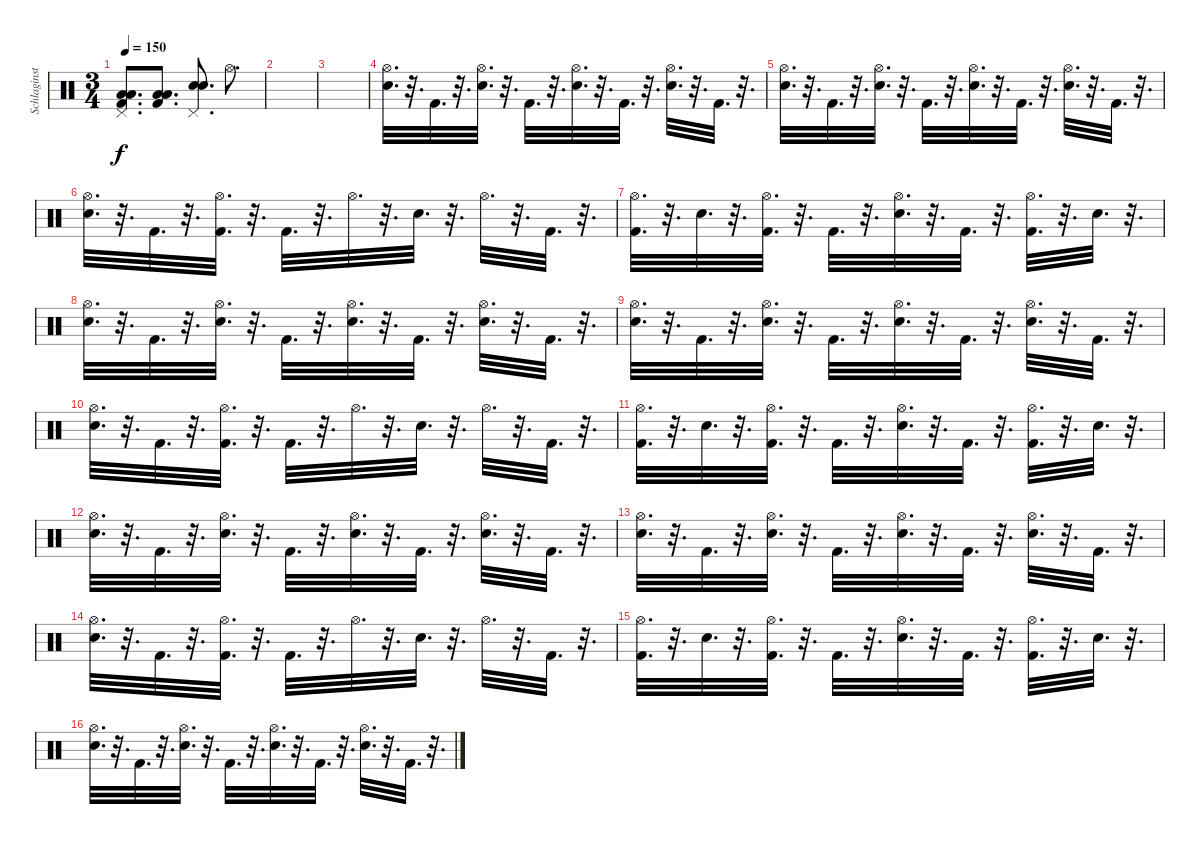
\track ("Schlaginstrumente - Auswahl" "Schlaginst") {instrument percussion}
\staff {score}
\articulation defaults
\ts (3 4)
\tempo 150
\clef neutral
\ks c
("Pedal Hi-Hat (hit)" "Low Tom (hit)" "Low Tom (hit)" "Kick (hit) 2").8{d dy f} ("Low Tom (hit)" "Low Tom (hit)" "Kick (hit) 2").8{d} ("Pedal Hi-Hat (hit)" "Snare (hit) 2" "Snare (hit) 2").8{d} "Hi-Hat (open)".8{d} |
|
|
("Hi-Hat (open)" "Snare (hit) 2").32{d} r.32{d} "Kick (hit) 2".32{d} r.32{d} ("Hi-Hat (open)" "Snare (hit) 2").32{d} r.32{d} "Kick (hit) 2".32{d} r.32{d} ("Hi-Hat (open)" "Snare (hit) 2").32{d} r.32{d} "Kick (hit) 2".32{d} r.32{d} ("Hi-Hat (open)" "Snare (hit) 2").32{d} r.32{d} "Kick (hit) 2".32{d} r.32{d} |
("Hi-Hat (open)" "Snare (hit) 2").32{d} r.32{d} "Kick (hit) 2".32{d} r.32{d} ("Hi-Hat (open)" "Snare (hit) 2").32{d} r.32{d} "Kick (hit) 2".32{d} r.32{d} ("Hi-Hat (open)" "Snare (hit) 2").32{d} r.32{d} "Kick (hit) 2".32{d} r.32{d} ("Hi-Hat (open)" "Snare (hit) 2").32{d} r.32{d} "Kick (hit) 2".32{d} r.32{d} |
("Hi-Hat (open)" "Snare (hit) 2").32{d} r.32{d} "Kick (hit) 2".32{d} r.32{d} ("Hi-Hat (open)" "Kick (hit) 2").32{d} r.32{d} "Kick (hit) 2".32{d} r.32{d} "Hi-Hat (open)".32{d} r.32{d} "Snare (hit) 2".32{d} r.32{d} "Hi-Hat (open)".32{d} r.32{d} "Kick (hit) 2".32{d} r.32{d} |
("Hi-Hat (open)" "Kick (hit) 2").32{d} r.32{d} "Snare (hit) 2".32{d} r.32{d} ("Hi-Hat (open)" "Kick (hit) 2").32{d} r.32{d} "Kick (hit) 2".32{d} r.32{d} ("Hi-Hat (open)" "Snare (hit) 2").32{d} r.32{d} "Kick (hit) 2".32{d} r.32{d} ("Hi-Hat (open)" "Kick (hit) 2").32{d} r.32{d} "Snare (hit) 2".32{d} r.32{d} |
("Hi-Hat (open)" "Snare (hit) 2").32{d} r.32{d} "Kick (hit) 2".32{d} r.32{d} ("Hi-Hat (open)" "Snare (hit) 2").32{d} r.32{d} "Kick (hit) 2".32{d} r.32{d} ("Hi-Hat (open)" "Snare (hit) 2").32{d} r.32{d} "Kick (hit) 2".32{d} r.32{d} ("Hi-Hat (open)" "Snare (hit) 2").32{d} r.32{d} "Kick (hit) 2".32{d} r.32{d} |
("Hi-Hat (open)" "Snare (hit) 2").32{d} r.32{d} "Kick (hit) 2".32{d} r.32{d} ("Hi-Hat (open)" "Snare (hit) 2").32{d} r.32{d} "Kick (hit) 2".32{d} r.32{d} ("Hi-Hat (open)" "Snare (hit) 2").32{d} r.32{d} "Kick (hit) 2".32{d} r.32{d} ("Hi-Hat (open)" "Snare (hit) 2").32{d} r.32{d} "Kick (hit) 2".32{d} r.32{d} |
("Hi-Hat (open)" "Snare (hit) 2").32{d} r.32{d} "Kick (hit) 2".32{d} r.32{d} ("Hi-Hat (open)" "Kick (hit) 2").32{d} r.32{d} "Kick (hit) 2".32{d} r.32{d} "Hi-Hat (open)".32{d} r.32{d} "Snare (hit) 2".32{d} r.32{d} "Hi-Hat (open)".32{d} r.32{d} "Kick (hit) 2".32{d} r.32{d} |
("Hi-Hat (open)" "Kick (hit) 2").32{d} r.32{d} "Snare (hit) 2".32{d} r.32{d} ("Hi-Hat (open)" "Kick (hit) 2").32{d} r.32{d} "Kick (hit) 2".32{d} r.32{d} ("Hi-Hat (open)" "Snare (hit) 2").32{d} r.32{d} "Kick (hit) 2".32{d} r.32{d} ("Hi-Hat (open)" "Kick (hit) 2").32{d} r.32{d} "Snare (hit) 2".32{d} r.32{d} |
("Hi-Hat (open)" "Snare (hit) 2").32{d} r.32{d} "Kick (hit) 2".32{d} r.32{d} ("Hi-Hat (open)" "Snare (hit) 2").32{d} r.32{d} "Kick (hit) 2".32{d} r.32{d} ("Hi-Hat (open)" "Snare (hit) 2").32{d} r.32{d} "Kick (hit) 2".32{d} r.32{d} ("Hi-Hat (open)" "Snare (hit) 2").32{d} r.32{d} "Kick (hit) 2".32{d} r.32{d} |
("Hi-Hat (open)" "Snare (hit) 2").32{d} r.32{d} "Kick (hit) 2".32{d} r.32{d} ("Hi-Hat (open)" "Snare (hit) 2").32{d} r.32{d} "Kick (hit) 2".32{d} r.32{d} ("Hi-Hat (open)" "Snare (hit) 2").32{d} r.32{d} "Kick (hit) 2".32{d} r.32{d} ("Hi-Hat (open)" "Snare (hit) 2").32{d} r.32{d} "Kick (hit) 2".32{d} r.32{d} |
("Hi-Hat (open)" "Snare (hit) 2").32{d} r.32{d} "Kick (hit) 2".32{d} r.32{d} ("Hi-Hat (open)" "Kick (hit) 2").32{d} r.32{d} "Kick (hit) 2".32{d} r.32{d} "Hi-Hat (open)".32{d} r.32{d} "Snare (hit) 2".32{d} r.32{d} "Hi-Hat (open)".32{d} r.32{d} "Kick (hit) 2".32{d} r.32{d} |
("Hi-Hat (open)" "Kick (hit) 2").32{d} r.32{d} "Snare (hit) 2".32{d} r.32{d} ("Hi-Hat (open)" "Kick (hit) 2").32{d} r.32{d} "Kick (hit) 2".32{d} r.32{d} ("Hi-Hat (open)" "Snare (hit) 2").32{d} r.32{d} "Kick (hit) 2".32{d} r.32{d} ("Hi-Hat (open)" "Kick (hit) 2").32{d} r.32{d} "Snare (hit) 2".32{d} r.32{d} |
("Hi-Hat (open)" "Snare (hit) 2").32{d} r.32{d} "Kick (hit) 2".32{d} r.32{d} ("Hi-Hat (open)" "Snare (hit) 2").32{d} r.32{d} "Kick (hit) 2".32{d} r.32{d} ("Hi-Hat (open)" "Snare (hit) 2").32{d} r.32{d} "Kick (hit) 2".32{d} r.32{d} ("Hi-Hat (open)" "Snare (hit) 2").32{d} r.32{d} "Kick (hit) 2".32{d} r.32{d}
